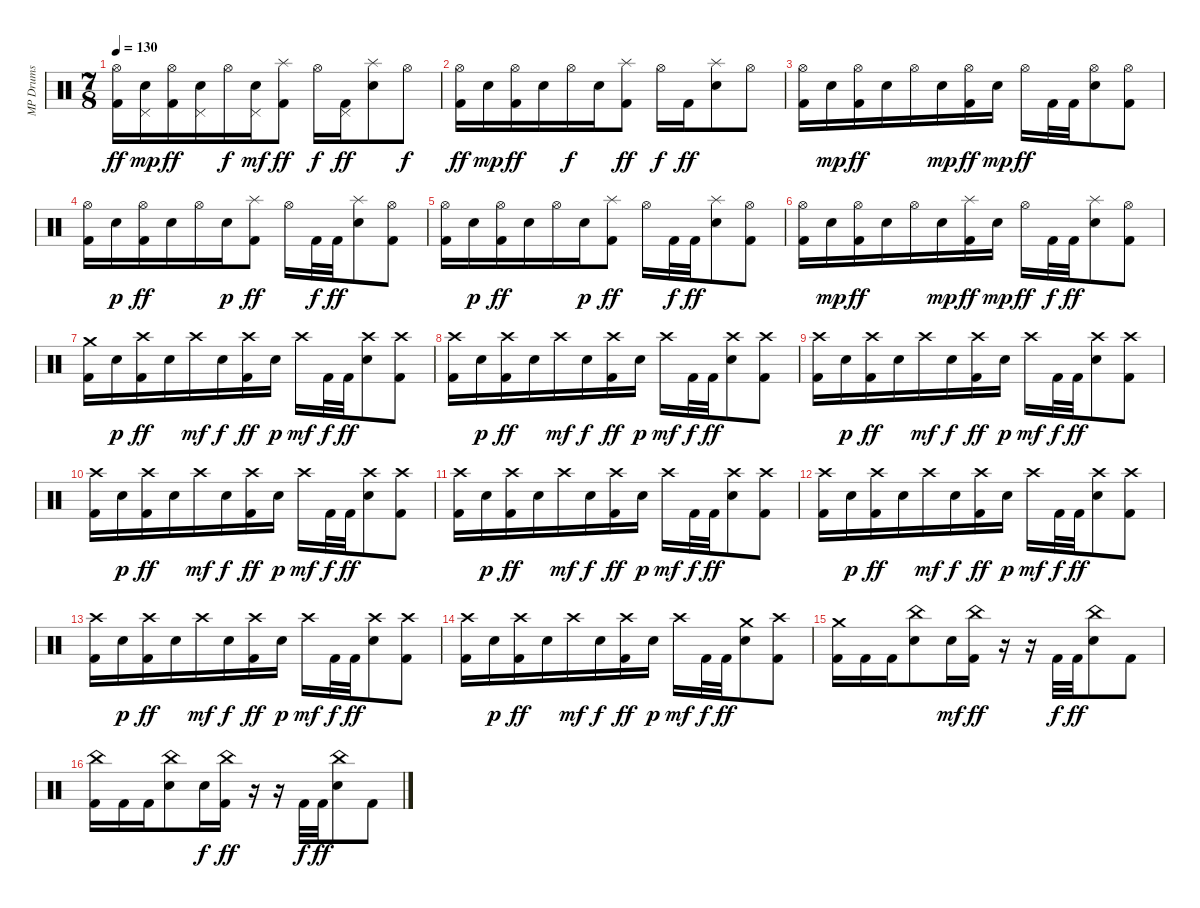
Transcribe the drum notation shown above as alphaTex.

\track ("MP Drums" "MP Drums") {instrument percussion}
\staff {score}
\articulation defaults
\ts (7 8)
\tempo 130
\clef neutral
\ks c
("Hi-Hat (open)" "Kick (hit) 2").16{dy ff} ("Pedal Hi-Hat (hit)" "Snare (hit) 2").16{dy mp} ("Hi-Hat (open)" "Kick (hit) 2").16{dy ff} ("Pedal Hi-Hat (hit)" "Snare (hit) 2").16 "Hi-Hat (open)".16{dy f} ("Pedal Hi-Hat (hit)" "Snare (hit) 2").16{dy mf} ("Splash (hit)" "Kick (hit) 2").8{dy ff} "Hi-Hat (open)".16{dy f} ("Pedal Hi-Hat (hit)" "Kick (hit) 2").16{dy ff} ("Splash (hit)" "Snare (hit) 2").8 "Hi-Hat (open)".8{dy f} |
("Hi-Hat (open)" "Kick (hit) 2").16{dy ff} "Snare (hit) 2".16{dy mp} ("Hi-Hat (open)" "Kick (hit) 2").16{dy ff} "Snare (hit) 2".16 "Hi-Hat (open)".16{dy f} "Snare (hit) 2".16 ("Splash (hit)" "Kick (hit) 2").8{dy ff} "Hi-Hat (open)".16{dy f} "Kick (hit) 2".16{dy ff} ("Splash (hit)" "Snare (hit) 2").8 "Hi-Hat (open)".8 |
("Hi-Hat (open)" "Kick (hit) 2").16 "Snare (hit) 2".16{dy mp} ("Hi-Hat (open)" "Kick (hit) 2").16{dy ff} "Snare (hit) 2".16 "Hi-Hat (open)".16 "Snare (hit) 2".16{dy mp} ("Hi-Hat (open)" "Kick (hit) 2").16{dy ff} "Snare (hit) 2".16{dy mp} "Hi-Hat (open)".16{dy ff} "Kick (hit) 2".32 "Kick (hit) 2".32 ("Hi-Hat (open)" "Snare (hit) 2").8 ("Hi-Hat (open)" "Kick (hit) 2").8 |
("Hi-Hat (open)" "Kick (hit) 2").16 "Snare (hit) 2".16{dy p} ("Hi-Hat (open)" "Kick (hit) 2").16{dy ff} "Snare (hit) 2".16 "Hi-Hat (open)".16 "Snare (hit) 2".16{dy p} ("Splash (hit)" "Kick (hit) 2").8{dy ff} "Hi-Hat (open)".16 "Kick (hit) 2".32{dy f} "Kick (hit) 2".32{dy ff} ("Splash (hit)" "Snare (hit) 2").8 ("Hi-Hat (open)" "Kick (hit) 2").8 |
("Hi-Hat (open)" "Kick (hit) 2").16 "Snare (hit) 2".16{dy p} ("Hi-Hat (open)" "Kick (hit) 2").16{dy ff} "Snare (hit) 2".16 "Hi-Hat (open)".16 "Snare (hit) 2".16{dy p} ("Splash (hit)" "Kick (hit) 2").8{dy ff} "Hi-Hat (open)".16 "Kick (hit) 2".32{dy f} "Kick (hit) 2".32{dy ff} ("Splash (hit)" "Snare (hit) 2").8 ("Hi-Hat (open)" "Kick (hit) 2").8 |
("Hi-Hat (open)" "Kick (hit) 2").16 "Snare (hit) 2".16{dy mp} ("Hi-Hat (open)" "Kick (hit) 2").16{dy ff} "Snare (hit) 2".16 "Hi-Hat (open)".16 "Snare (hit) 2".16{dy mp} ("Splash (hit)" "Kick (hit) 2").16{dy ff} "Snare (hit) 2".16{dy mp} "Hi-Hat (open)".16{dy ff} "Kick (hit) 2".32{dy f} "Kick (hit) 2".32{dy ff} ("Splash (hit)" "Snare (hit) 2").8 ("Hi-Hat (open)" "Kick (hit) 2").8 |
("Crash medium (hit)" "Kick (hit) 2").16 "Snare (hit) 2".16{dy p} ("Crash high (hit)" "Kick (hit) 2").16{dy ff} "Snare (hit) 2".16 "Crash high (hit)".16{dy mf} "Snare (hit) 2".16{dy f} ("Crash high (hit)" "Kick (hit) 2").16{dy ff} "Snare (hit) 2".16{dy p} "Crash high (hit)".16{dy mf} "Kick (hit) 2".32{dy f} "Kick (hit) 2".32{dy ff} ("Crash high (hit)" "Snare (hit) 2").8 ("Crash high (hit)" "Kick (hit) 2").8 |
("Crash high (hit)" "Kick (hit) 2").16 "Snare (hit) 2".16{dy p} ("Crash high (hit)" "Kick (hit) 2").16{dy ff} "Snare (hit) 2".16 "Crash high (hit)".16{dy mf} "Snare (hit) 2".16{dy f} ("Crash high (hit)" "Kick (hit) 2").16{dy ff} "Snare (hit) 2".16{dy p} "Crash high (hit)".16{dy mf} "Kick (hit) 2".32{dy f} "Kick (hit) 2".32{dy ff} ("Crash high (hit)" "Snare (hit) 2").8 ("Crash high (hit)" "Kick (hit) 2").8 |
("Crash high (hit)" "Kick (hit) 2").16 "Snare (hit) 2".16{dy p} ("Crash high (hit)" "Kick (hit) 2").16{dy ff} "Snare (hit) 2".16 "Crash high (hit)".16{dy mf} "Snare (hit) 2".16{dy f} ("Crash high (hit)" "Kick (hit) 2").16{dy ff} "Snare (hit) 2".16{dy p} "Crash high (hit)".16{dy mf} "Kick (hit) 2".32{dy f} "Kick (hit) 2".32{dy ff} ("Crash high (hit)" "Snare (hit) 2").8 ("Crash high (hit)" "Kick (hit) 2").8 |
("Crash high (hit)" "Kick (hit) 2").16 "Snare (hit) 2".16{dy p} ("Crash high (hit)" "Kick (hit) 2").16{dy ff} "Snare (hit) 2".16 "Crash high (hit)".16{dy mf} "Snare (hit) 2".16{dy f} ("Crash high (hit)" "Kick (hit) 2").16{dy ff} "Snare (hit) 2".16{dy p} "Crash high (hit)".16{dy mf} "Kick (hit) 2".32{dy f} "Kick (hit) 2".32{dy ff} ("Crash high (hit)" "Snare (hit) 2").8 ("Crash high (hit)" "Kick (hit) 2").8 |
("Crash high (hit)" "Kick (hit) 2").16 "Snare (hit) 2".16{dy p} ("Crash high (hit)" "Kick (hit) 2").16{dy ff} "Snare (hit) 2".16 "Crash high (hit)".16{dy mf} "Snare (hit) 2".16{dy f} ("Crash high (hit)" "Kick (hit) 2").16{dy ff} "Snare (hit) 2".16{dy p} "Crash high (hit)".16{dy mf} "Kick (hit) 2".32{dy f} "Kick (hit) 2".32{dy ff} ("Crash high (hit)" "Snare (hit) 2").8 ("Crash high (hit)" "Kick (hit) 2").8 |
("Crash high (hit)" "Kick (hit) 2").16 "Snare (hit) 2".16{dy p} ("Crash high (hit)" "Kick (hit) 2").16{dy ff} "Snare (hit) 2".16 "Crash high (hit)".16{dy mf} "Snare (hit) 2".16{dy f} ("Crash high (hit)" "Kick (hit) 2").16{dy ff} "Snare (hit) 2".16{dy p} "Crash high (hit)".16{dy mf} "Kick (hit) 2".32{dy f} "Kick (hit) 2".32{dy ff} ("Crash high (hit)" "Snare (hit) 2").8 ("Crash high (hit)" "Kick (hit) 2").8 |
("Crash high (hit)" "Kick (hit) 2").16 "Snare (hit) 2".16{dy p} ("Crash high (hit)" "Kick (hit) 2").16{dy ff} "Snare (hit) 2".16 "Crash high (hit)".16{dy mf} "Snare (hit) 2".16{dy f} ("Crash high (hit)" "Kick (hit) 2").16{dy ff} "Snare (hit) 2".16{dy p} "Crash high (hit)".16{dy mf} "Kick (hit) 2".32{dy f} "Kick (hit) 2".32{dy ff} ("Crash high (hit)" "Snare (hit) 2").8 ("Crash high (hit)" "Kick (hit) 2").8 |
("Crash high (hit)" "Kick (hit) 2").16 "Snare (hit) 2".16{dy p} ("Crash high (hit)" "Kick (hit) 2").16{dy ff} "Snare (hit) 2".16 "Crash high (hit)".16{dy mf} "Snare (hit) 2".16{dy f} ("Crash high (hit)" "Kick (hit) 2").16{dy ff} "Snare (hit) 2".16{dy p} "Crash high (hit)".16{dy mf} "Kick (hit) 2".32{dy f} "Kick (hit) 2".32{dy ff} ("Crash medium (hit)" "Snare (hit) 2").8 ("Crash high (hit)" "Kick (hit) 2").8 |
("Crash medium (hit)" "Kick (hit) 2").16 "Kick (hit) 2".16 "Kick (hit) 2".16 ("China (hit)" "Snare (hit) 2").8 "Snare (hit) 2".16{dy mf} ("China (hit)" "Kick (hit) 2").16{dy ff} r.16 r.16 "Kick (hit) 2".32{dy f} "Kick (hit) 2".32{dy ff} ("China (hit)" "Snare (hit) 2").8 "Kick (hit) 2".8 |
("China (hit)" "Kick (hit) 2").16 "Kick (hit) 2".16 "Kick (hit) 2".16 ("China (hit)" "Snare (hit) 2").8 "Snare (hit) 2".16{dy f} ("China (hit)" "Kick (hit) 2").16{dy ff} r.16 r.16 "Kick (hit) 2".32{dy f} "Kick (hit) 2".32{dy ff} ("China (hit)" "Snare (hit) 2").8 "Kick (hit) 2".8
